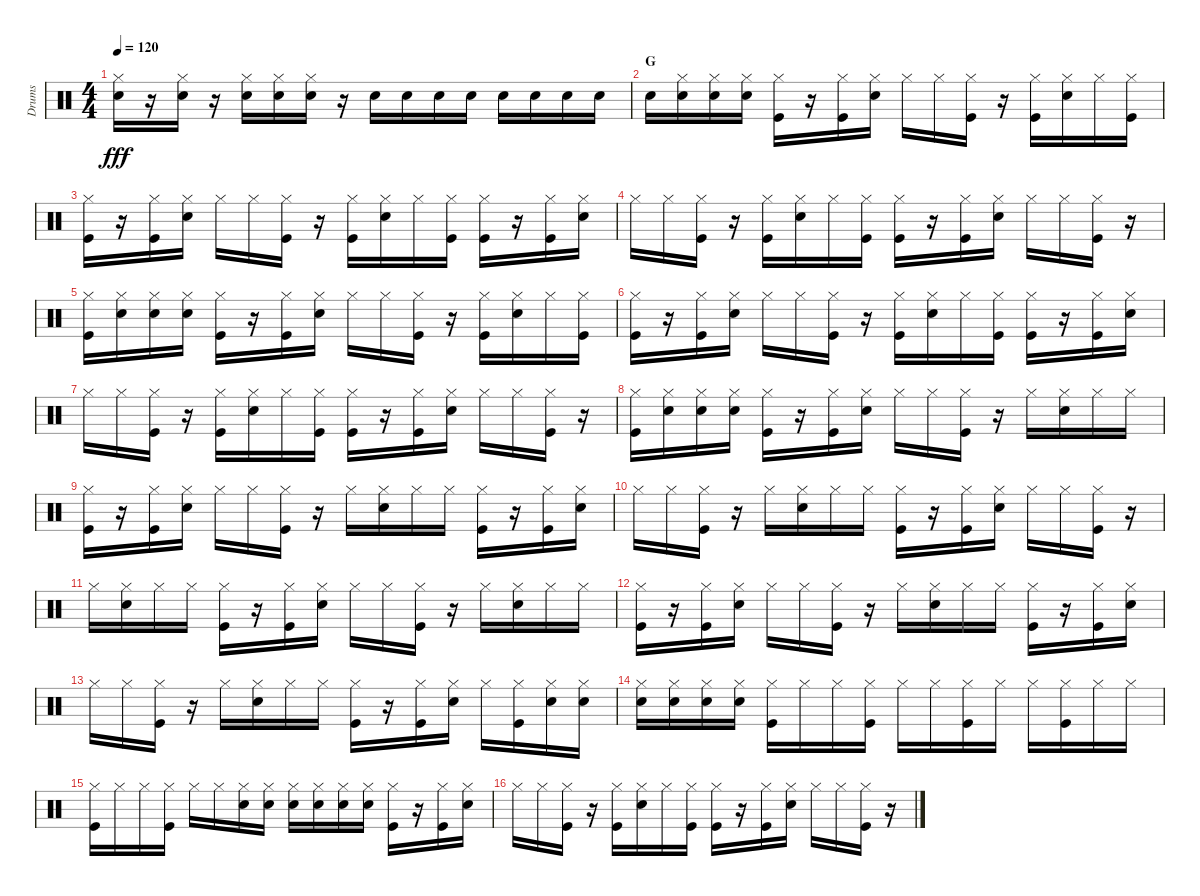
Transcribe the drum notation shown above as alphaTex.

\track ("Drums" "Drums") {instrument percussion}
\staff {score}
\articulation defaults
\ts (4 4)
\tempo 120
\clef neutral
\ks c
("Snare (hit) 2" "Hi-Hat (closed)").16{dy fff} r.16 ("Snare (hit) 2" "Hi-Hat (closed)").16 r.16 ("Snare (hit) 2" "Hi-Hat (closed)").16 ("Snare (hit) 2" "Hi-Hat (closed)").16 ("Snare (hit) 2" "Hi-Hat (closed)").16 r.16 "Snare (hit) 2".16 "Snare (hit) 2".16 "Snare (hit) 2".16 "Snare (hit) 2".16 "Snare (hit) 2".16 "Snare (hit) 2".16 "Snare (hit) 2".16 "Snare (hit) 2".16 |
\section ("" "G")
"Snare (hit) 2".16 ("Snare (hit) 2" "Hi-Hat (closed)").16 ("Snare (hit) 2" "Hi-Hat (closed)").16 ("Snare (hit) 2" "Hi-Hat (closed)").16 ("Kick (hit)" "Hi-Hat (closed)").16 r.16 ("Kick (hit)" "Hi-Hat (closed)").16 ("Snare (hit) 2" "Hi-Hat (closed)").16 "Hi-Hat (closed)".16 "Hi-Hat (closed)".16 ("Kick (hit)" "Hi-Hat (closed)").16 r.16 ("Kick (hit)" "Hi-Hat (closed)").16 ("Snare (hit) 2" "Hi-Hat (closed)").16 "Hi-Hat (closed)".16 ("Kick (hit)" "Hi-Hat (closed)").16 |
("Kick (hit)" "Hi-Hat (closed)").16 r.16 ("Kick (hit)" "Hi-Hat (closed)").16 ("Snare (hit) 2" "Hi-Hat (closed)").16 "Hi-Hat (closed)".16 "Hi-Hat (closed)".16 ("Kick (hit)" "Hi-Hat (closed)").16 r.16 ("Kick (hit)" "Hi-Hat (closed)").16 ("Snare (hit) 2" "Hi-Hat (closed)").16 "Hi-Hat (closed)".16 ("Kick (hit)" "Hi-Hat (closed)").16 ("Kick (hit)" "Hi-Hat (closed)").16 r.16 ("Kick (hit)" "Hi-Hat (closed)").16 ("Snare (hit) 2" "Hi-Hat (closed)").16 |
"Hi-Hat (closed)".16 "Hi-Hat (closed)".16 ("Kick (hit)" "Hi-Hat (closed)").16 r.16 ("Kick (hit)" "Hi-Hat (closed)").16 ("Snare (hit) 2" "Hi-Hat (closed)").16 "Hi-Hat (closed)".16 ("Kick (hit)" "Hi-Hat (closed)").16 ("Kick (hit)" "Hi-Hat (closed)").16 r.16 ("Kick (hit)" "Hi-Hat (closed)").16 ("Snare (hit) 2" "Hi-Hat (closed)").16 "Hi-Hat (closed)".16 "Hi-Hat (closed)".16 ("Kick (hit)" "Hi-Hat (closed)").16 r.16 |
("Kick (hit)" "Hi-Hat (closed)").16 ("Snare (hit) 2" "Hi-Hat (closed)").16 ("Snare (hit) 2" "Hi-Hat (closed)").16 ("Snare (hit) 2" "Hi-Hat (closed)").16 ("Kick (hit)" "Hi-Hat (closed)").16 r.16 ("Kick (hit)" "Hi-Hat (closed)").16 ("Snare (hit) 2" "Hi-Hat (closed)").16 "Hi-Hat (closed)".16 "Hi-Hat (closed)".16 ("Kick (hit)" "Hi-Hat (closed)").16 r.16 ("Kick (hit)" "Hi-Hat (closed)").16 ("Snare (hit) 2" "Hi-Hat (closed)").16 "Hi-Hat (closed)".16 ("Kick (hit)" "Hi-Hat (closed)").16 |
("Kick (hit)" "Hi-Hat (closed)").16 r.16 ("Kick (hit)" "Hi-Hat (closed)").16 ("Snare (hit) 2" "Hi-Hat (closed)").16 "Hi-Hat (closed)".16 "Hi-Hat (closed)".16 ("Kick (hit)" "Hi-Hat (closed)").16 r.16 ("Kick (hit)" "Hi-Hat (closed)").16 ("Snare (hit) 2" "Hi-Hat (closed)").16 "Hi-Hat (closed)".16 ("Kick (hit)" "Hi-Hat (closed)").16 ("Kick (hit)" "Hi-Hat (closed)").16 r.16 ("Kick (hit)" "Hi-Hat (closed)").16 ("Snare (hit) 2" "Hi-Hat (closed)").16 |
"Hi-Hat (closed)".16 "Hi-Hat (closed)".16 ("Kick (hit)" "Hi-Hat (closed)").16 r.16 ("Kick (hit)" "Hi-Hat (closed)").16 ("Snare (hit) 2" "Hi-Hat (closed)").16 "Hi-Hat (closed)".16 ("Kick (hit)" "Hi-Hat (closed)").16 ("Kick (hit)" "Hi-Hat (closed)").16 r.16 ("Kick (hit)" "Hi-Hat (closed)").16 ("Snare (hit) 2" "Hi-Hat (closed)").16 "Hi-Hat (closed)".16 "Hi-Hat (closed)".16 ("Kick (hit)" "Hi-Hat (closed)").16 r.16 |
("Kick (hit)" "Hi-Hat (closed)").16 ("Snare (hit) 2" "Hi-Hat (closed)").16 ("Snare (hit) 2" "Hi-Hat (closed)").16 ("Snare (hit) 2" "Hi-Hat (closed)").16 ("Kick (hit)" "Hi-Hat (closed)").16 r.16 ("Kick (hit)" "Hi-Hat (closed)").16 ("Snare (hit) 2" "Hi-Hat (closed)").16 "Hi-Hat (closed)".16 "Hi-Hat (closed)".16 ("Kick (hit)" "Hi-Hat (closed)").16 r.16 "Hi-Hat (closed)".16 ("Snare (hit) 2" "Hi-Hat (closed)").16 "Hi-Hat (closed)".16 "Hi-Hat (closed)".16 |
("Kick (hit)" "Hi-Hat (closed)").16 r.16 ("Kick (hit)" "Hi-Hat (closed)").16 ("Snare (hit) 2" "Hi-Hat (closed)").16 "Hi-Hat (closed)".16 "Hi-Hat (closed)".16 ("Kick (hit)" "Hi-Hat (closed)").16 r.16 "Hi-Hat (closed)".16 ("Snare (hit) 2" "Hi-Hat (closed)").16 "Hi-Hat (closed)".16 "Hi-Hat (closed)".16 ("Kick (hit)" "Hi-Hat (closed)").16 r.16 ("Kick (hit)" "Hi-Hat (closed)").16 ("Snare (hit) 2" "Hi-Hat (closed)").16 |
"Hi-Hat (closed)".16 "Hi-Hat (closed)".16 ("Kick (hit)" "Hi-Hat (closed)").16 r.16 "Hi-Hat (closed)".16 ("Snare (hit) 2" "Hi-Hat (closed)").16 "Hi-Hat (closed)".16 "Hi-Hat (closed)".16 ("Kick (hit)" "Hi-Hat (closed)").16 r.16 ("Kick (hit)" "Hi-Hat (closed)").16 ("Snare (hit) 2" "Hi-Hat (closed)").16 "Hi-Hat (closed)".16 "Hi-Hat (closed)".16 ("Kick (hit)" "Hi-Hat (closed)").16 r.16 |
"Hi-Hat (closed)".16 ("Snare (hit) 2" "Hi-Hat (closed)").16 "Hi-Hat (closed)".16 "Hi-Hat (closed)".16 ("Kick (hit)" "Hi-Hat (closed)").16 r.16 ("Kick (hit)" "Hi-Hat (closed)").16 ("Snare (hit) 2" "Hi-Hat (closed)").16 "Hi-Hat (closed)".16 "Hi-Hat (closed)".16 ("Kick (hit)" "Hi-Hat (closed)").16 r.16 "Hi-Hat (closed)".16 ("Snare (hit) 2" "Hi-Hat (closed)").16 "Hi-Hat (closed)".16 "Hi-Hat (closed)".16 |
("Kick (hit)" "Hi-Hat (closed)").16 r.16 ("Kick (hit)" "Hi-Hat (closed)").16 ("Snare (hit) 2" "Hi-Hat (closed)").16 "Hi-Hat (closed)".16 "Hi-Hat (closed)".16 ("Kick (hit)" "Hi-Hat (closed)").16 r.16 "Hi-Hat (closed)".16 ("Snare (hit) 2" "Hi-Hat (closed)").16 "Hi-Hat (closed)".16 "Hi-Hat (closed)".16 ("Kick (hit)" "Hi-Hat (closed)").16 r.16 ("Kick (hit)" "Hi-Hat (closed)").16 ("Snare (hit) 2" "Hi-Hat (closed)").16 |
"Hi-Hat (closed)".16 "Hi-Hat (closed)".16 ("Kick (hit)" "Hi-Hat (closed)").16 r.16 "Hi-Hat (closed)".16 ("Snare (hit) 2" "Hi-Hat (closed)").16 "Hi-Hat (closed)".16 "Hi-Hat (closed)".16 ("Kick (hit)" "Hi-Hat (closed)").16 r.16 ("Kick (hit)" "Hi-Hat (closed)").16 ("Snare (hit) 2" "Hi-Hat (closed)").16 "Hi-Hat (closed)".16 ("Kick (hit)" "Hi-Hat (closed)").16 ("Snare (hit) 2" "Hi-Hat (closed)").16 ("Snare (hit) 2" "Hi-Hat (closed)").16 |
("Snare (hit) 2" "Hi-Hat (closed)").16 ("Snare (hit) 2" "Hi-Hat (closed)").16 ("Snare (hit) 2" "Hi-Hat (closed)").16 ("Snare (hit) 2" "Hi-Hat (closed)").16 ("Kick (hit)" "Hi-Hat (closed)").16 "Hi-Hat (closed)".16 "Hi-Hat (closed)".16 ("Kick (hit)" "Hi-Hat (closed)").16 "Hi-Hat (closed)".16 "Hi-Hat (closed)".16 ("Kick (hit)" "Hi-Hat (closed)").16 "Hi-Hat (closed)".16 "Hi-Hat (closed)".16 ("Kick (hit)" "Hi-Hat (closed)").16 "Hi-Hat (closed)".16 "Hi-Hat (closed)".16 |
("Kick (hit)" "Hi-Hat (closed)").16 "Hi-Hat (closed)".16 "Hi-Hat (closed)".16 ("Kick (hit)" "Hi-Hat (closed)").16 "Hi-Hat (closed)".16 "Hi-Hat (closed)".16 ("Snare (hit) 2" "Hi-Hat (closed)").16 ("Snare (hit) 2" "Hi-Hat (closed)").16 ("Snare (hit) 2" "Hi-Hat (closed)").16 ("Snare (hit) 2" "Hi-Hat (closed)").16 ("Snare (hit) 2" "Hi-Hat (closed)").16 ("Snare (hit) 2" "Hi-Hat (closed)").16 ("Kick (hit)" "Hi-Hat (closed)").16 r.16 ("Kick (hit)" "Hi-Hat (closed)").16 ("Snare (hit) 2" "Hi-Hat (closed)").16 |
"Hi-Hat (closed)".16 "Hi-Hat (closed)".16 ("Kick (hit)" "Hi-Hat (closed)").16 r.16 ("Kick (hit)" "Hi-Hat (closed)").16 ("Snare (hit) 2" "Hi-Hat (closed)").16 "Hi-Hat (closed)".16 ("Kick (hit)" "Hi-Hat (closed)").16 ("Kick (hit)" "Hi-Hat (closed)").16 r.16 ("Kick (hit)" "Hi-Hat (closed)").16 ("Snare (hit) 2" "Hi-Hat (closed)").16 "Hi-Hat (closed)".16 "Hi-Hat (closed)".16 ("Kick (hit)" "Hi-Hat (closed)").16 r.16
